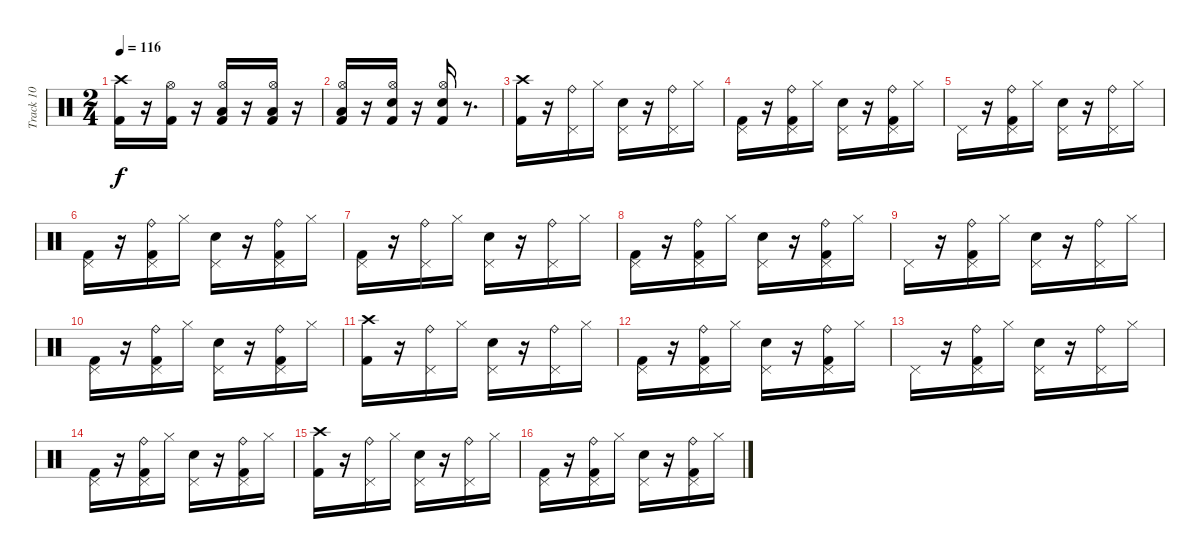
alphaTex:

\track ("Track 10" "Track 10") {instrument percussion}
\staff {score}
\articulation defaults
\ts (2 4)
\tempo 116
\clef neutral
\ks c
("Kick (hit) 2" "Crash high (hit)").16{dy f} r.16 ("Hi-Hat (open)" "Kick (hit) 2").16 r.16 ("Low Tom (hit)" "Hi-Hat (open)" "Kick (hit) 2").16 r.16 ("Low Tom (hit)" "Kick (hit) 2" "Hi-Hat (open)").16 r.16 |
("Kick (hit) 2" "Hi-Hat (open)" "Low Tom (hit)").16 r.16 ("Hi-Hat (open)" "Kick (hit) 2" "Electric Snare (hit)").16 r.16 ("Kick (hit) 2" "Electric Snare (hit)" "Hi-Hat (open)").16 r.8{d} |
("Crash high (hit)" "Kick (hit) 2").16 r.16 ("Ride (bell)" "Pedal Hi-Hat (hit)").16 "Hi-Hat (closed)".16 ("Pedal Hi-Hat (hit)" "Electric Snare (hit)").16 r.16 ("Pedal Hi-Hat (hit)" "Ride (bell)").16 "Hi-Hat (closed)".16 |
("Pedal Hi-Hat (hit)" "Kick (hit) 2").16 r.16 ("Ride (bell)" "Kick (hit) 2" "Pedal Hi-Hat (hit)").16 "Hi-Hat (closed)".16 ("Pedal Hi-Hat (hit)" "Electric Snare (hit)").16 r.16 ("Kick (hit) 2" "Pedal Hi-Hat (hit)" "Ride (bell)").16 "Hi-Hat (closed)".16 |
"Pedal Hi-Hat (hit)".16 r.16 ("Pedal Hi-Hat (hit)" "Kick (hit) 2" "Ride (bell)").16 "Hi-Hat (closed)".16 ("Pedal Hi-Hat (hit)" "Electric Snare (hit)").16 r.16 ("Pedal Hi-Hat (hit)" "Ride (bell)").16 "Hi-Hat (closed)".16 |
("Pedal Hi-Hat (hit)" "Kick (hit) 2").16 r.16 ("Pedal Hi-Hat (hit)" "Ride (bell)" "Kick (hit) 2").16 "Hi-Hat (closed)".16 ("Pedal Hi-Hat (hit)" "Electric Snare (hit)").16 r.16 ("Pedal Hi-Hat (hit)" "Ride (bell)" "Kick (hit) 2").16 "Hi-Hat (closed)".16 |
("Pedal Hi-Hat (hit)" "Kick (hit) 2").16 r.16 ("Ride (bell)" "Pedal Hi-Hat (hit)").16 "Hi-Hat (closed)".16 ("Pedal Hi-Hat (hit)" "Electric Snare (hit)").16 r.16 ("Pedal Hi-Hat (hit)" "Ride (bell)").16 "Hi-Hat (closed)".16 |
("Pedal Hi-Hat (hit)" "Kick (hit) 2").16 r.16 ("Ride (bell)" "Kick (hit) 2" "Pedal Hi-Hat (hit)").16 "Hi-Hat (closed)".16 ("Pedal Hi-Hat (hit)" "Electric Snare (hit)").16 r.16 ("Kick (hit) 2" "Pedal Hi-Hat (hit)" "Ride (bell)").16 "Hi-Hat (closed)".16 |
"Pedal Hi-Hat (hit)".16 r.16 ("Pedal Hi-Hat (hit)" "Kick (hit) 2" "Ride (bell)").16 "Hi-Hat (closed)".16 ("Pedal Hi-Hat (hit)" "Electric Snare (hit)").16 r.16 ("Pedal Hi-Hat (hit)" "Ride (bell)").16 "Hi-Hat (closed)".16 |
("Pedal Hi-Hat (hit)" "Kick (hit) 2").16 r.16 ("Pedal Hi-Hat (hit)" "Ride (bell)" "Kick (hit) 2").16 "Hi-Hat (closed)".16 ("Pedal Hi-Hat (hit)" "Electric Snare (hit)").16 r.16 ("Pedal Hi-Hat (hit)" "Ride (bell)" "Kick (hit) 2").16 "Hi-Hat (closed)".16 |
("Crash high (hit)" "Kick (hit) 2").16 r.16 ("Ride (bell)" "Pedal Hi-Hat (hit)").16 "Hi-Hat (closed)".16 ("Pedal Hi-Hat (hit)" "Electric Snare (hit)").16 r.16 ("Pedal Hi-Hat (hit)" "Ride (bell)").16 "Hi-Hat (closed)".16 |
("Pedal Hi-Hat (hit)" "Kick (hit) 2").16 r.16 ("Ride (bell)" "Kick (hit) 2" "Pedal Hi-Hat (hit)").16 "Hi-Hat (closed)".16 ("Pedal Hi-Hat (hit)" "Electric Snare (hit)").16 r.16 ("Kick (hit) 2" "Pedal Hi-Hat (hit)" "Ride (bell)").16 "Hi-Hat (closed)".16 |
"Pedal Hi-Hat (hit)".16 r.16 ("Pedal Hi-Hat (hit)" "Kick (hit) 2" "Ride (bell)").16 "Hi-Hat (closed)".16 ("Pedal Hi-Hat (hit)" "Electric Snare (hit)").16 r.16 ("Pedal Hi-Hat (hit)" "Ride (bell)").16 "Hi-Hat (closed)".16 |
("Pedal Hi-Hat (hit)" "Kick (hit) 2").16 r.16 ("Pedal Hi-Hat (hit)" "Ride (bell)" "Kick (hit) 2").16 "Hi-Hat (closed)".16 ("Pedal Hi-Hat (hit)" "Electric Snare (hit)").16 r.16 ("Pedal Hi-Hat (hit)" "Ride (bell)" "Kick (hit) 2").16 "Hi-Hat (closed)".16 |
("Crash high (hit)" "Kick (hit) 2").16 r.16 ("Ride (bell)" "Pedal Hi-Hat (hit)").16 "Hi-Hat (closed)".16 ("Pedal Hi-Hat (hit)" "Electric Snare (hit)").16 r.16 ("Pedal Hi-Hat (hit)" "Ride (bell)").16 "Hi-Hat (closed)".16 |
("Pedal Hi-Hat (hit)" "Kick (hit) 2").16 r.16 ("Ride (bell)" "Kick (hit) 2" "Pedal Hi-Hat (hit)").16 "Hi-Hat (closed)".16 ("Pedal Hi-Hat (hit)" "Electric Snare (hit)").16 r.16 ("Kick (hit) 2" "Pedal Hi-Hat (hit)" "Ride (bell)").16 "Hi-Hat (closed)".16
